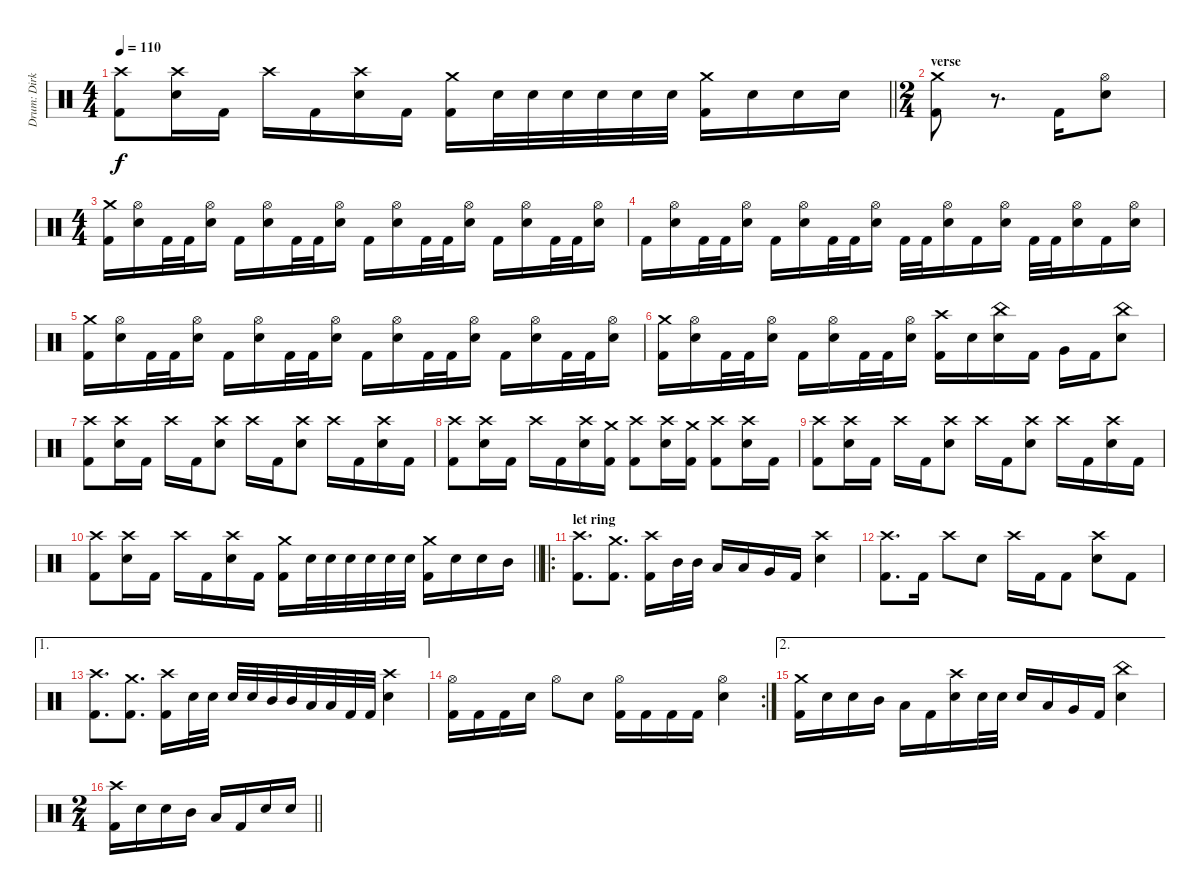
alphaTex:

\track ("Drum: Dirk" "Drum: Dirk") {instrument percussion}
\staff {score}
\articulation defaults
\ts (4 4)
\tempo 110
\clef neutral
\barLineRight lightlight
\ks c
("Crash high (hit)" "Kick (hit) 2").8{dy f} ("Crash high (hit)" "Electric Snare (hit)").16 "Kick (hit) 2".16 "Crash high (hit)".16 "Kick (hit) 2".16 ("Crash high (hit)" "Electric Snare (hit)").16 "Kick (hit) 2".16 ("Crash medium (hit)" "Kick (hit) 2").16 "Electric Snare (hit)".32 "Electric Snare (hit)".32 "Electric Snare (hit)".32 "Electric Snare (hit)".32 "Electric Snare (hit)".32 "Electric Snare (hit)".32 ("Crash medium (hit)" "Kick (hit) 2").16 "Electric Snare (hit)".16 "Electric Snare (hit)".16 "Electric Snare (hit)".16 |
\ts (2 4)
\section ("" "verse")
("Crash medium (hit)" "Kick (hit) 2").8 r.8{d} "Kick (hit) 2".16 ("Hi-Hat (open)" "Electric Snare (hit)").8 |
\ts (4 4)
("Crash medium (hit)" "Kick (hit) 2").16 ("Hi-Hat (open)" "Electric Snare (hit)").16 "Kick (hit) 2".32 "Kick (hit) 2".32 ("Hi-Hat (open)" "Electric Snare (hit)").16 "Kick (hit) 2".16 ("Hi-Hat (open)" "Electric Snare (hit)").16 "Kick (hit) 2".32 "Kick (hit) 2".32 ("Hi-Hat (open)" "Electric Snare (hit)").16 "Kick (hit) 2".16 ("Hi-Hat (open)" "Electric Snare (hit)").16 "Kick (hit) 2".32 "Kick (hit) 2".32 ("Hi-Hat (open)" "Electric Snare (hit)").16 "Kick (hit) 2".16 ("Hi-Hat (open)" "Electric Snare (hit)").16 "Kick (hit) 2".32 "Kick (hit) 2".32 ("Hi-Hat (open)" "Electric Snare (hit)").16 |
"Kick (hit) 2".16 ("Hi-Hat (open)" "Electric Snare (hit)").16 "Kick (hit) 2".32 "Kick (hit) 2".32 ("Hi-Hat (open)" "Electric Snare (hit)").16 "Kick (hit) 2".16 ("Hi-Hat (open)" "Electric Snare (hit)").16 "Kick (hit) 2".32 "Kick (hit) 2".32 ("Hi-Hat (open)" "Electric Snare (hit)").16 "Kick (hit) 2".32 "Kick (hit) 2".32 ("Hi-Hat (open)" "Electric Snare (hit)").16 "Kick (hit) 2".16 ("Hi-Hat (open)" "Electric Snare (hit)").16 "Kick (hit) 2".32 "Kick (hit) 2".32 ("Hi-Hat (open)" "Electric Snare (hit)").16 "Kick (hit) 2".16 ("Hi-Hat (open)" "Electric Snare (hit)").16 |
("Crash medium (hit)" "Kick (hit) 2").16 ("Hi-Hat (open)" "Electric Snare (hit)").16 "Kick (hit) 2".32 "Kick (hit) 2".32 ("Hi-Hat (open)" "Electric Snare (hit)").16 "Kick (hit) 2".16 ("Hi-Hat (open)" "Electric Snare (hit)").16 "Kick (hit) 2".32 "Kick (hit) 2".32 ("Hi-Hat (open)" "Electric Snare (hit)").16 "Kick (hit) 2".16 ("Hi-Hat (open)" "Electric Snare (hit)").16 "Kick (hit) 2".32 "Kick (hit) 2".32 ("Hi-Hat (open)" "Electric Snare (hit)").16 "Kick (hit) 2".16 ("Hi-Hat (open)" "Electric Snare (hit)").16 "Kick (hit) 2".32 "Kick (hit) 2".32 ("Hi-Hat (open)" "Electric Snare (hit)").16 |
("Crash medium (hit)" "Kick (hit) 2").16 ("Hi-Hat (open)" "Electric Snare (hit)").16 "Kick (hit) 2".32 "Kick (hit) 2".32 ("Hi-Hat (open)" "Electric Snare (hit)").16 "Kick (hit) 2".16 ("Hi-Hat (open)" "Electric Snare (hit)").16 "Kick (hit) 2".32 "Kick (hit) 2".32 ("Hi-Hat (open)" "Electric Snare (hit)").16 ("Crash high (hit)" "Kick (hit) 2").16 "Electric Snare (hit)".16 ("China (hit)" "Electric Snare (hit)").16 "Kick (hit) 2".16 "Very Low Tom (hit)".16 "Kick (hit) 2".16 ("China (hit)" "Electric Snare (hit)").8 |
("Crash high (hit)" "Kick (hit) 2").8 ("Crash high (hit)" "Electric Snare (hit)").16 "Kick (hit) 2".16 "Crash high (hit)".16 "Kick (hit) 2".16 ("Crash high (hit)" "Electric Snare (hit)").8 "Crash high (hit)".16 "Kick (hit) 2".16 ("Crash high (hit)" "Electric Snare (hit)").8 "Crash high (hit)".16 "Kick (hit) 2".16 ("Crash high (hit)" "Electric Snare (hit)").16 "Kick (hit) 2".16 |
("Crash high (hit)" "Kick (hit) 2").8 ("Crash high (hit)" "Electric Snare (hit)").16 "Kick (hit) 2".16 "Crash high (hit)".16 "Kick (hit) 2".16 ("Crash high (hit)" "Electric Snare (hit)").16 ("Crash medium (hit)" "Kick (hit) 2").16 ("Crash high (hit)" "Kick (hit) 2").8 ("Crash high (hit)" "Electric Snare (hit)").16 ("Crash medium (hit)" "Kick (hit) 2").16 ("Crash high (hit)" "Kick (hit) 2").8 ("Crash high (hit)" "Electric Snare (hit)").16 "Kick (hit) 2".16 |
("Crash high (hit)" "Kick (hit) 2").8 ("Crash high (hit)" "Electric Snare (hit)").16 "Kick (hit) 2".16 "Crash high (hit)".16 "Kick (hit) 2".16 ("Crash high (hit)" "Electric Snare (hit)").8 "Crash high (hit)".16 "Kick (hit) 2".16 ("Crash high (hit)" "Electric Snare (hit)").8 "Crash high (hit)".16 "Kick (hit) 2".16 ("Crash high (hit)" "Electric Snare (hit)").16 "Kick (hit) 2".16 |
\barLineRight lightlight
("Crash high (hit)" "Kick (hit) 2").8 ("Crash high (hit)" "Electric Snare (hit)").16 "Kick (hit) 2".16 "Crash high (hit)".16 "Kick (hit) 2".16 ("Crash high (hit)" "Electric Snare (hit)").16 "Kick (hit) 2".16 ("Crash medium (hit)" "Kick (hit) 2").16 "Electric Snare (hit)".32 "Electric Snare (hit)".32 "Electric Snare (hit)".32 "Electric Snare (hit)".32 "Electric Snare (hit)".32 "Electric Snare (hit)".32 ("Crash medium (hit)" "Kick (hit) 2").16 "Electric Snare (hit)".16 "Electric Snare (hit)".16 "Mid Tom (hit)".16 |
\ro
\section ("" "let ring")
("Crash high (hit)" "Kick (hit) 2").8{d} ("Crash medium (hit)" "Kick (hit) 2").8{d} ("Crash high (hit)" "Kick (hit) 2").16 "Mid Tom (hit)".32 "Mid Tom (hit)".32 "Low Tom (hit)".16 "Low Tom (hit)".16 "Very Low Tom (hit)".16 "Kick (hit) 2".16 ("Crash high (hit)" "Electric Snare (hit)").4 |
("Crash high (hit)" "Kick (hit) 2").8{d} "Kick (hit) 2".16 "Crash high (hit)".8 "Electric Snare (hit)".8 "Crash high (hit)".16 "Kick (hit) 2".16 "Kick (hit) 2".8 ("Crash high (hit)" "Electric Snare (hit)").8 "Kick (hit) 2".8 |
\ae 1
("Crash high (hit)" "Kick (hit) 2").8{d} ("Crash medium (hit)" "Kick (hit) 2").8{d} ("Crash high (hit)" "Kick (hit) 2").16 "Electric Snare (hit)".32 "Electric Snare (hit)".32 "Electric Snare (hit)".32 "Electric Snare (hit)".32 "Mid Tom (hit)".32 "Mid Tom (hit)".32 "Low Tom (hit)".32 "Low Tom (hit)".32 "Kick (hit) 2".32 "Kick (hit) 2".32 ("Crash high (hit)" "Electric Snare (hit)").4 |
\rc 2
("Hi-Hat (open)" "Kick (hit) 2").16 "Kick (hit) 2".16 "Kick (hit) 2".16 "Electric Snare (hit)".16 "Hi-Hat (open)".8 "Electric Snare (hit)".8 ("Hi-Hat (open)" "Kick (hit) 2").16 "Kick (hit) 2".16 "Kick (hit) 2".16 "Kick (hit) 2".16 ("Hi-Hat (open)" "Electric Snare (hit)").4 |
\ae 2
("Crash medium (hit)" "Kick (hit) 2").16 "Electric Snare (hit)".16 "Electric Snare (hit)".16 "Mid Tom (hit)".16 "Low Tom (hit)".16 "Kick (hit) 2".16 ("Crash high (hit)" "Electric Snare (hit)").16 "Electric Snare (hit)".32 "Electric Snare (hit)".32 "Electric Snare (hit)".16 "Low Tom (hit)".16 "Very Low Tom (hit)".16 "Kick (hit) 2".16 ("China (hit)" "Electric Snare (hit)").4 |
\ts (2 4)
\barLineRight lightlight
("Crash high (hit)" "Kick (hit) 2").16 "Electric Snare (hit)".16 "Electric Snare (hit)".16 "Mid Tom (hit)".16 "Low Tom (hit)".16 "Kick (hit) 2".16 "Electric Snare (hit)".16 "Electric Snare (hit)".16
